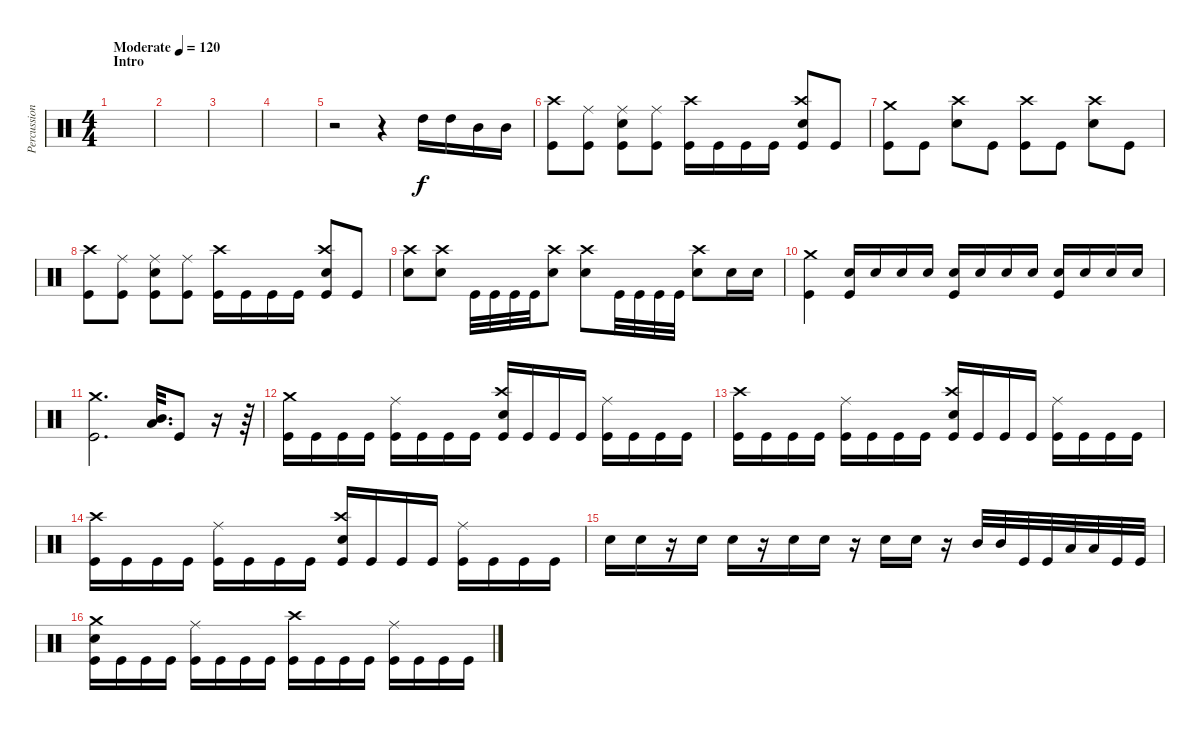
\track ("Percussion" "Percussion") {instrument percussion}
\staff {score}
\articulation defaults
\ts (4 4)
\section ("" "Intro")
\tempo (120 "Moderate")
\clef neutral
\ks c
|
|
|
|
r.2{volume 12} r.4 "High Tom (hit)".16 "High Tom (hit)".16 "Mid Tom (hit)".16 "Mid Tom (hit)".16 |
("Kick (hit)" "Crash high (hit)").8 ("Kick (hit)" "Ride (middle)").8 ("Kick (hit)" "Ride (middle)" "Snare (hit) 2").8 ("Kick (hit)" "Ride (middle)").8 ("Kick (hit)" "Crash high (hit)").16 "Kick (hit)".16 "Kick (hit)".16 "Kick (hit)".16 ("Crash high (hit)" "Snare (hit) 2" "Kick (hit)").8 "Kick (hit)".8 |
("Kick (hit)" "Crash medium (hit)").8 "Kick (hit)".8 ("Crash high (hit)" "Snare (hit) 2").8 "Kick (hit)".8 ("Kick (hit)" "Crash high (hit)").8 "Kick (hit)".8 ("Snare (hit) 2" "Crash high (hit)").8 "Kick (hit)".8 |
("Kick (hit)" "Crash high (hit)").8 ("Kick (hit)" "Ride (middle)").8 ("Kick (hit)" "Ride (middle)" "Snare (hit) 2").8 ("Kick (hit)" "Ride (middle)").8 ("Kick (hit)" "Crash high (hit)").16 "Kick (hit)".16 "Kick (hit)".16 "Kick (hit)".16 ("Crash high (hit)" "Snare (hit) 2" "Kick (hit)").8 "Kick (hit)".8 |
("Crash high (hit)" "Snare (hit) 2").8 ("Snare (hit) 2" "Crash high (hit)").8 "Kick (hit)".32 "Kick (hit)".32 "Kick (hit)".32 "Kick (hit)".32 ("Snare (hit) 2" "Crash high (hit)").8 ("Snare (hit) 2" "Crash high (hit)").8 "Kick (hit)".32 "Kick (hit)".32 "Kick (hit)".32 "Kick (hit)".32 ("Snare (hit) 2" "Crash high (hit)").8 "Snare (hit) 2".16 "Snare (hit) 2".16 |
("Crash medium (hit)" "Kick (hit)").4 ("Kick (hit)" "Snare (hit) 2").16{volume 6} "Snare (hit) 2".16{volume 13} "Snare (hit) 2".16 "Snare (hit) 2".16 ("Kick (hit)" "Snare (hit) 2").16 "Snare (hit) 2".16 "Snare (hit) 2".16 "Snare (hit) 2".16 ("Kick (hit)" "Snare (hit) 2").16 "Snare (hit) 2".16 "Snare (hit) 2".16 "Snare (hit) 2".16 |
("Crash medium (hit)" "Kick (hit)").2{d volume 12} ("Low Tom (hit)" "Mid Tom (hit)").32{d} "Kick (hit)".8 r.16 r.64 |
("Kick (hit)" "Crash medium (hit)").16 "Kick (hit)".16 "Kick (hit)".16 "Kick (hit)".16 ("Kick (hit)" "Ride (middle)").16 "Kick (hit)".16 "Kick (hit)".16 "Kick (hit)".16 ("Kick (hit)" "Snare (hit) 2" "Crash high (hit)").16 "Kick (hit)".16 "Kick (hit)".16 "Kick (hit)".16 ("Kick (hit)" "Ride (middle)").16 "Kick (hit)".16 "Kick (hit)".16 "Kick (hit)".16 |
("Kick (hit)" "Crash high (hit)").16 "Kick (hit)".16 "Kick (hit)".16 "Kick (hit)".16 ("Kick (hit)" "Ride (middle)").16 "Kick (hit)".16 "Kick (hit)".16 "Kick (hit)".16 ("Kick (hit)" "Snare (hit) 2" "Crash high (hit)").16 "Kick (hit)".16 "Kick (hit)".16 "Kick (hit)".16 ("Kick (hit)" "Ride (middle)").16 "Kick (hit)".16 "Kick (hit)".16 "Kick (hit)".16 |
("Kick (hit)" "Crash high (hit)").16 "Kick (hit)".16 "Kick (hit)".16 "Kick (hit)".16 ("Kick (hit)" "Ride (middle)").16 "Kick (hit)".16 "Kick (hit)".16 "Kick (hit)".16 ("Kick (hit)" "Snare (hit) 2" "Crash high (hit)").16 "Kick (hit)".16 "Kick (hit)".16 "Kick (hit)".16 ("Kick (hit)" "Ride (middle)").16 "Kick (hit)".16 "Kick (hit)".16 "Kick (hit)".16 |
"Snare (hit) 2".16 "Snare (hit) 2".16 r.16 "Snare (hit) 2".16 "Snare (hit) 2".16 r.16 "Snare (hit) 2".16 "Snare (hit) 2".16 r.16 "Snare (hit) 2".16 "Snare (hit) 2".16 r.16 "Mid Tom (hit)".32 "Mid Tom (hit)".32 "Kick (hit)".32 "Kick (hit)".32 "Low Tom (hit)".32 "Low Tom (hit)".32 "Kick (hit)".32 "Kick (hit)".32 |
("Kick (hit)" "Snare (hit) 2" "Crash medium (hit)").16 "Kick (hit)".16 "Kick (hit)".16 "Kick (hit)".16 ("Kick (hit)" "Ride (middle)").16 "Kick (hit)".16 "Kick (hit)".16 "Kick (hit)".16 ("Kick (hit)" "Crash high (hit)").16 "Kick (hit)".16 "Kick (hit)".16 "Kick (hit)".16 ("Kick (hit)" "Ride (middle)").16 "Kick (hit)".16 "Kick (hit)".16 "Kick (hit)".16
